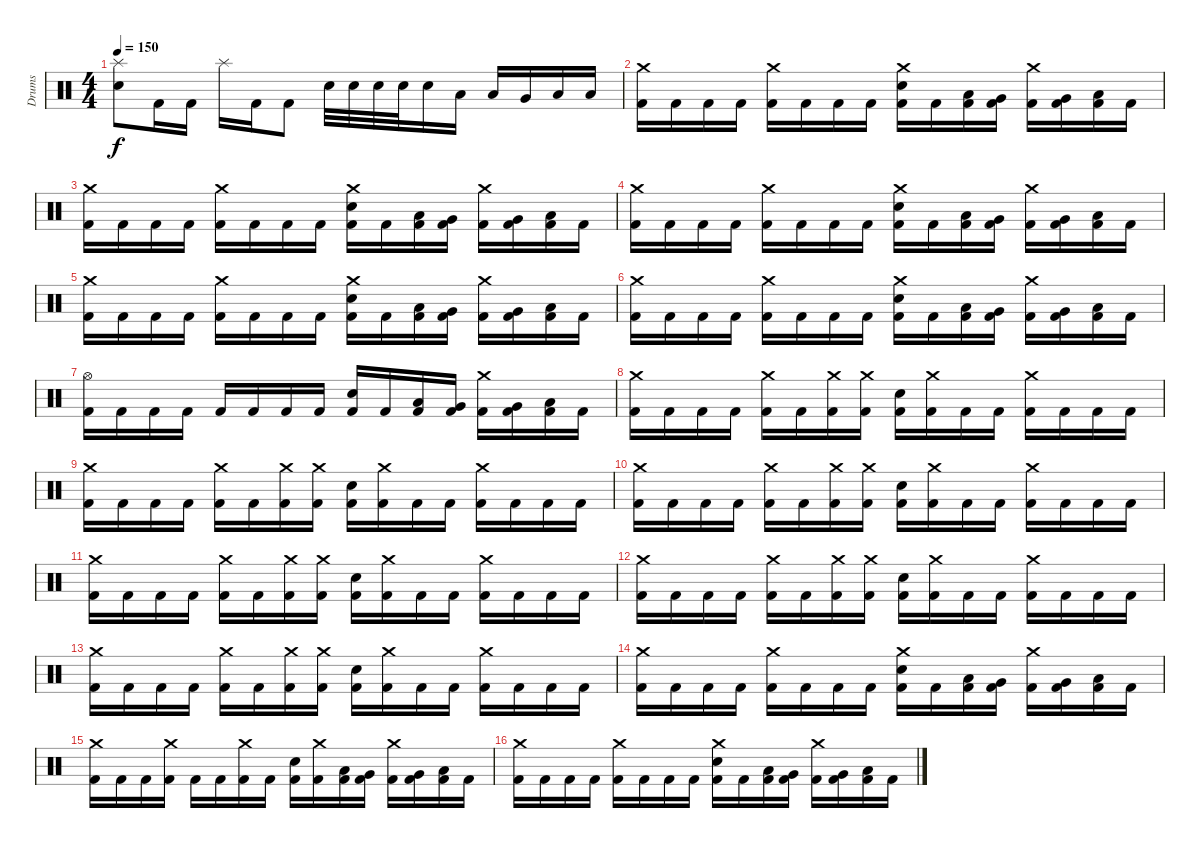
\track ("Drums" "Drums") {instrument percussion}
\staff {score}
\articulation defaults
\ts (4 4)
\tempo 150
\clef neutral
\ks c
("Splash (hit)" "Snare (hit) 2").8{dy f} "Kick (hit) 2".16 "Kick (hit) 2".16 "Splash (hit)".16 "Kick (hit) 2".16 "Kick (hit) 2".8 "Snare (hit) 2".32 "Snare (hit) 2".32 "Snare (hit) 2".32 "Snare (hit) 2".32 "Snare (hit) 2".16 "Low Tom (hit)".16 "Low Tom (hit)".16 "Very Low Tom (hit)".16 "Low Floor Tom (hit)".16 "Low Floor Tom (hit)".16 |
("Crash medium (hit)" "Kick (hit) 2").16 "Kick (hit) 2".16 "Kick (hit) 2".16 "Kick (hit) 2".16 ("Crash medium (hit)" "Kick (hit) 2").16 "Kick (hit) 2".16 "Kick (hit) 2".16 "Kick (hit) 2".16 ("Crash medium (hit)" "Snare (hit) 2" "Kick (hit) 2").16 "Kick (hit) 2".16 ("Low Tom (hit)" "Kick (hit) 2").16 ("Very Low Tom (hit)" "Kick (hit) 2").16 ("Crash medium (hit)" "Kick (hit) 2").16 ("Very Low Tom (hit)" "Kick (hit) 2").16 ("Low Floor Tom (hit)" "Kick (hit) 2").16 "Kick (hit) 2".16 |
("Crash medium (hit)" "Kick (hit) 2").16 "Kick (hit) 2".16 "Kick (hit) 2".16 "Kick (hit) 2".16 ("Crash medium (hit)" "Kick (hit) 2").16 "Kick (hit) 2".16 "Kick (hit) 2".16 "Kick (hit) 2".16 ("Crash medium (hit)" "Snare (hit) 2" "Kick (hit) 2").16 "Kick (hit) 2".16 ("Low Tom (hit)" "Kick (hit) 2").16 ("Very Low Tom (hit)" "Kick (hit) 2").16 ("Crash medium (hit)" "Kick (hit) 2").16 ("Very Low Tom (hit)" "Kick (hit) 2").16 ("Low Floor Tom (hit)" "Kick (hit) 2").16 "Kick (hit) 2".16 |
("Crash medium (hit)" "Kick (hit) 2").16 "Kick (hit) 2".16 "Kick (hit) 2".16 "Kick (hit) 2".16 ("Crash medium (hit)" "Kick (hit) 2").16 "Kick (hit) 2".16 "Kick (hit) 2".16 "Kick (hit) 2".16 ("Crash medium (hit)" "Snare (hit) 2" "Kick (hit) 2").16 "Kick (hit) 2".16 ("Low Tom (hit)" "Kick (hit) 2").16 ("Very Low Tom (hit)" "Kick (hit) 2").16 ("Crash medium (hit)" "Kick (hit) 2").16 ("Very Low Tom (hit)" "Kick (hit) 2").16 ("Low Floor Tom (hit)" "Kick (hit) 2").16 "Kick (hit) 2".16 |
("Crash medium (hit)" "Kick (hit) 2").16 "Kick (hit) 2".16 "Kick (hit) 2".16 "Kick (hit) 2".16 ("Crash medium (hit)" "Kick (hit) 2").16 "Kick (hit) 2".16 "Kick (hit) 2".16 "Kick (hit) 2".16 ("Crash medium (hit)" "Snare (hit) 2" "Kick (hit) 2").16 "Kick (hit) 2".16 ("Low Tom (hit)" "Kick (hit) 2").16 ("Very Low Tom (hit)" "Kick (hit) 2").16 ("Crash medium (hit)" "Kick (hit) 2").16 ("Very Low Tom (hit)" "Kick (hit) 2").16 ("Low Floor Tom (hit)" "Kick (hit) 2").16 "Kick (hit) 2".16 |
("Crash medium (hit)" "Kick (hit) 2").16 "Kick (hit) 2".16 "Kick (hit) 2".16 "Kick (hit) 2".16 ("Crash medium (hit)" "Kick (hit) 2").16 "Kick (hit) 2".16 "Kick (hit) 2".16 "Kick (hit) 2".16 ("Crash medium (hit)" "Snare (hit) 2" "Kick (hit) 2").16 "Kick (hit) 2".16 ("Low Tom (hit)" "Kick (hit) 2").16 ("Very Low Tom (hit)" "Kick (hit) 2").16 ("Crash medium (hit)" "Kick (hit) 2").16 ("Very Low Tom (hit)" "Kick (hit) 2").16 ("Low Floor Tom (hit)" "Kick (hit) 2").16 "Kick (hit) 2".16 |
("Hi-Hat (open)" "Kick (hit) 2").16 "Kick (hit) 2".16 "Kick (hit) 2".16 "Kick (hit) 2".16 "Kick (hit) 2".16 "Kick (hit) 2".16 "Kick (hit) 2".16 "Kick (hit) 2".16 ("Snare (hit) 2" "Kick (hit) 2").16 "Kick (hit) 2".16 ("Low Tom (hit)" "Kick (hit) 2").16 ("Very Low Tom (hit)" "Kick (hit) 2").16 ("Crash medium (hit)" "Kick (hit) 2").16 ("Very Low Tom (hit)" "Kick (hit) 2").16 ("Low Floor Tom (hit)" "Kick (hit) 2").16 "Kick (hit) 2".16 |
("Crash medium (hit)" "Kick (hit) 2").16 "Kick (hit) 2".16 "Kick (hit) 2".16 "Kick (hit) 2".16 ("Crash medium (hit)" "Kick (hit) 2").16 "Kick (hit) 2".16 ("Crash medium (hit)" "Kick (hit) 2").16 ("Crash medium (hit)" "Kick (hit) 2").16 ("Snare (hit) 2" "Kick (hit) 2").16 ("Crash medium (hit)" "Kick (hit) 2").16 "Kick (hit) 2".16 "Kick (hit) 2".16 ("Crash medium (hit)" "Kick (hit) 2").16 "Kick (hit) 2".16 "Kick (hit) 2".16 "Kick (hit) 2".16 |
("Crash medium (hit)" "Kick (hit) 2").16 "Kick (hit) 2".16 "Kick (hit) 2".16 "Kick (hit) 2".16 ("Crash medium (hit)" "Kick (hit) 2").16 "Kick (hit) 2".16 ("Crash medium (hit)" "Kick (hit) 2").16 ("Crash medium (hit)" "Kick (hit) 2").16 ("Snare (hit) 2" "Kick (hit) 2").16 ("Crash medium (hit)" "Kick (hit) 2").16 "Kick (hit) 2".16 "Kick (hit) 2".16 ("Crash medium (hit)" "Kick (hit) 2").16 "Kick (hit) 2".16 "Kick (hit) 2".16 "Kick (hit) 2".16 |
("Crash medium (hit)" "Kick (hit) 2").16 "Kick (hit) 2".16 "Kick (hit) 2".16 "Kick (hit) 2".16 ("Crash medium (hit)" "Kick (hit) 2").16 "Kick (hit) 2".16 ("Crash medium (hit)" "Kick (hit) 2").16 ("Crash medium (hit)" "Kick (hit) 2").16 ("Snare (hit) 2" "Kick (hit) 2").16 ("Crash medium (hit)" "Kick (hit) 2").16 "Kick (hit) 2".16 "Kick (hit) 2".16 ("Crash medium (hit)" "Kick (hit) 2").16 "Kick (hit) 2".16 "Kick (hit) 2".16 "Kick (hit) 2".16 |
("Crash medium (hit)" "Kick (hit) 2").16 "Kick (hit) 2".16 "Kick (hit) 2".16 "Kick (hit) 2".16 ("Crash medium (hit)" "Kick (hit) 2").16 "Kick (hit) 2".16 ("Crash medium (hit)" "Kick (hit) 2").16 ("Crash medium (hit)" "Kick (hit) 2").16 ("Snare (hit) 2" "Kick (hit) 2").16 ("Crash medium (hit)" "Kick (hit) 2").16 "Kick (hit) 2".16 "Kick (hit) 2".16 ("Crash medium (hit)" "Kick (hit) 2").16 "Kick (hit) 2".16 "Kick (hit) 2".16 "Kick (hit) 2".16 |
("Crash medium (hit)" "Kick (hit) 2").16 "Kick (hit) 2".16 "Kick (hit) 2".16 "Kick (hit) 2".16 ("Crash medium (hit)" "Kick (hit) 2").16 "Kick (hit) 2".16 ("Crash medium (hit)" "Kick (hit) 2").16 ("Crash medium (hit)" "Kick (hit) 2").16 ("Snare (hit) 2" "Kick (hit) 2").16 ("Crash medium (hit)" "Kick (hit) 2").16 "Kick (hit) 2".16 "Kick (hit) 2".16 ("Crash medium (hit)" "Kick (hit) 2").16 "Kick (hit) 2".16 "Kick (hit) 2".16 "Kick (hit) 2".16 |
("Crash medium (hit)" "Kick (hit) 2").16 "Kick (hit) 2".16 "Kick (hit) 2".16 "Kick (hit) 2".16 ("Crash medium (hit)" "Kick (hit) 2").16 "Kick (hit) 2".16 ("Crash medium (hit)" "Kick (hit) 2").16 ("Crash medium (hit)" "Kick (hit) 2").16 ("Snare (hit) 2" "Kick (hit) 2").16 ("Crash medium (hit)" "Kick (hit) 2").16 "Kick (hit) 2".16 "Kick (hit) 2".16 ("Crash medium (hit)" "Kick (hit) 2").16 "Kick (hit) 2".16 "Kick (hit) 2".16 "Kick (hit) 2".16 |
("Crash medium (hit)" "Kick (hit) 2").16 "Kick (hit) 2".16 "Kick (hit) 2".16 "Kick (hit) 2".16 ("Crash medium (hit)" "Kick (hit) 2").16 "Kick (hit) 2".16 "Kick (hit) 2".16 "Kick (hit) 2".16 ("Crash medium (hit)" "Snare (hit) 2" "Kick (hit) 2").16 "Kick (hit) 2".16 ("Low Tom (hit)" "Kick (hit) 2").16 ("Very Low Tom (hit)" "Kick (hit) 2").16 ("Crash medium (hit)" "Kick (hit) 2").16 ("Very Low Tom (hit)" "Kick (hit) 2").16 ("Low Floor Tom (hit)" "Kick (hit) 2").16 "Kick (hit) 2".16 |
("Crash medium (hit)" "Kick (hit) 2").16 "Kick (hit) 2".16 "Kick (hit) 2".16 ("Crash medium (hit)" "Kick (hit) 2").16 "Kick (hit) 2".16 "Kick (hit) 2".16 ("Crash medium (hit)" "Kick (hit) 2").16 "Kick (hit) 2".16 ("Snare (hit) 2" "Kick (hit) 2").16 ("Crash medium (hit)" "Kick (hit) 2").16 ("Low Tom (hit)" "Kick (hit) 2").16 ("Very Low Tom (hit)" "Kick (hit) 2").16 ("Crash medium (hit)" "Kick (hit) 2").16 ("Very Low Tom (hit)" "Kick (hit) 2").16 ("Low Floor Tom (hit)" "Kick (hit) 2").16 "Kick (hit) 2".16 |
("Crash medium (hit)" "Kick (hit) 2").16{volume 0} "Kick (hit) 2".16 "Kick (hit) 2".16 "Kick (hit) 2".16 ("Crash medium (hit)" "Kick (hit) 2").16 "Kick (hit) 2".16 "Kick (hit) 2".16 "Kick (hit) 2".16 ("Crash medium (hit)" "Snare (hit) 2" "Kick (hit) 2").16 "Kick (hit) 2".16 ("Low Tom (hit)" "Kick (hit) 2").16 ("Very Low Tom (hit)" "Kick (hit) 2").16 ("Crash medium (hit)" "Kick (hit) 2").16 ("Very Low Tom (hit)" "Kick (hit) 2").16 ("Low Floor Tom (hit)" "Kick (hit) 2").16 "Kick (hit) 2".16
